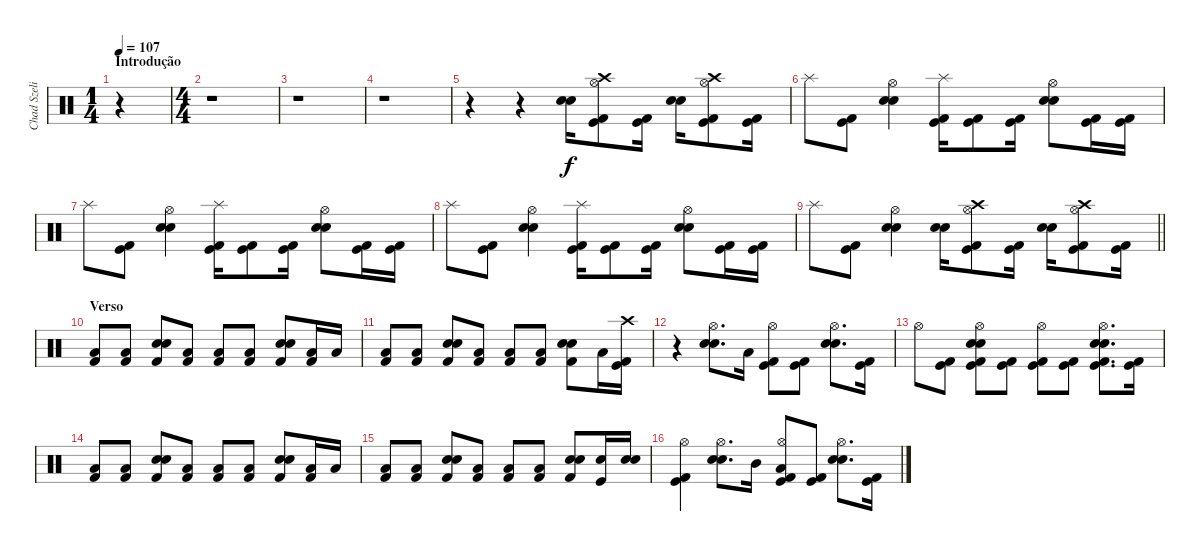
\track ("Chad Szeliga" "Chad Szeli") {instrument percussion}
\staff {score}
\articulation defaults
\ts (1 4)
\section ("" "Introdução")
\tempo 107
\clef neutral
\ks c
r.4{dy f} |
\ts (4 4)
r.1 |
r.1 |
r.1 |
r.4 r.4 ("Snare (hit) 2" "Snare (hit) 2").16 ("Crash high (hit)" "Kick (hit) 2" "Kick (hit)" "Hi-Hat (open)").8 ("Kick (hit) 2" "Kick (hit)").16 ("Snare (hit) 2" "Snare (hit) 2").16 ("Crash high (hit)" "Kick (hit) 2" "Kick (hit)" "Hi-Hat (open)").8 ("Kick (hit) 2" "Kick (hit)").16 |
"Splash (hit)".8 ("Kick (hit) 2" "Kick (hit)").8 ("Snare (hit) 2" "Snare (hit) 2" "Hi-Hat (open)").4 ("Kick (hit) 2" "Kick (hit)" "Splash (hit)").16 ("Kick (hit) 2" "Kick (hit)").8 ("Kick (hit) 2" "Kick (hit)").16 ("Snare (hit) 2" "Snare (hit) 2" "Hi-Hat (open)").8 ("Kick (hit) 2" "Kick (hit)").16 ("Kick (hit) 2" "Kick (hit)").16 |
"Splash (hit)".8 ("Kick (hit) 2" "Kick (hit)").8 ("Snare (hit) 2" "Snare (hit) 2" "Hi-Hat (open)").4 ("Kick (hit) 2" "Kick (hit)" "Splash (hit)").16 ("Kick (hit) 2" "Kick (hit)").8 ("Kick (hit) 2" "Kick (hit)").16 ("Snare (hit) 2" "Snare (hit) 2" "Hi-Hat (open)").8 ("Kick (hit) 2" "Kick (hit)").16 ("Kick (hit) 2" "Kick (hit)").16 |
"Splash (hit)".8 ("Kick (hit) 2" "Kick (hit)").8 ("Snare (hit) 2" "Snare (hit) 2" "Hi-Hat (open)").4 ("Kick (hit) 2" "Kick (hit)" "Splash (hit)").16 ("Kick (hit) 2" "Kick (hit)").8 ("Kick (hit) 2" "Kick (hit)").16 ("Snare (hit) 2" "Snare (hit) 2" "Hi-Hat (open)").8 ("Kick (hit) 2" "Kick (hit)").16 ("Kick (hit) 2" "Kick (hit)").16 |
\barLineRight lightlight "Splash (hit)".8
("Kick (hit) 2" "Kick (hit)").8 ("Snare (hit) 2" "Snare (hit) 2" "Hi-Hat (open)").4 ("Snare (hit) 2" "Snare (hit) 2").16 ("Crash high (hit)" "Kick (hit) 2" "Kick (hit)" "Hi-Hat (open)").8 ("Kick (hit) 2" "Kick (hit)").16 ("Snare (hit) 2" "Snare (hit) 2").16 ("Crash high (hit)" "Kick (hit) 2" "Kick (hit)" "Hi-Hat (open)").8 ("Kick (hit) 2" "Kick (hit)").16 |
\section ("" "Verso")
("Kick (hit) 2" "Low Tom (hit)").8 ("Kick (hit) 2" "Low Tom (hit)").8 ("Kick (hit) 2" "Snare (hit) 2" "Snare (hit) 2").8 ("Kick (hit) 2" "Low Tom (hit)").8 ("Kick (hit) 2" "Low Tom (hit)").8 ("Kick (hit) 2" "Low Tom (hit)").8 ("Kick (hit) 2" "Snare (hit) 2" "Snare (hit) 2").8 ("Kick (hit) 2" "Low Tom (hit)").16 "Low Tom (hit)".16 |
("Kick (hit) 2" "Low Tom (hit)").8 ("Kick (hit) 2" "Low Tom (hit)").8 ("Kick (hit) 2" "Snare (hit) 2" "Snare (hit) 2").8 ("Kick (hit) 2" "Low Tom (hit)").8 ("Kick (hit) 2" "Low Tom (hit)").8 ("Kick (hit) 2" "Low Tom (hit)").8 ("Kick (hit) 2" "Snare (hit) 2" "Snare (hit) 2").8 "Low Tom (hit)".16 ("Crash high (hit)" "Kick (hit) 2" "Kick (hit)").16 |
r.4 ("Snare (hit) 2" "Snare (hit) 2" "Hi-Hat (open)").8{d} "Low Tom (hit)".16 ("Kick (hit) 2" "Kick (hit)" "Hi-Hat (open)").8 ("Kick (hit) 2" "Kick (hit)").8 ("Snare (hit) 2" "Snare (hit) 2" "Hi-Hat (open)").8{d} ("Kick (hit) 2" "Kick (hit)").16 |
"Hi-Hat (open)".8 ("Kick (hit) 2" "Kick (hit)").8 ("Kick (hit) 2" "Kick (hit)" "Snare (hit) 2" "Snare (hit) 2" "Hi-Hat (open)").8 ("Kick (hit) 2" "Kick (hit)").8 ("Kick (hit) 2" "Kick (hit)" "Hi-Hat (open)").8 ("Kick (hit) 2" "Kick (hit)").8 ("Kick (hit) 2" "Kick (hit)" "Snare (hit) 2" "Snare (hit) 2" "Hi-Hat (open)").8{d} ("Kick (hit) 2" "Kick (hit)").16 |
("Kick (hit) 2" "Low Tom (hit)").8 ("Kick (hit) 2" "Low Tom (hit)").8 ("Kick (hit) 2" "Snare (hit) 2" "Snare (hit) 2").8 ("Kick (hit) 2" "Low Tom (hit)").8 ("Kick (hit) 2" "Low Tom (hit)").8 ("Kick (hit) 2" "Low Tom (hit)").8 ("Kick (hit) 2" "Snare (hit) 2" "Snare (hit) 2").8 ("Kick (hit) 2" "Low Tom (hit)").16 "Low Tom (hit)".16 |
("Kick (hit) 2" "Low Tom (hit)").8 ("Kick (hit) 2" "Low Tom (hit)").8 ("Kick (hit) 2" "Snare (hit) 2" "Snare (hit) 2").8 ("Kick (hit) 2" "Low Tom (hit)").8 ("Kick (hit) 2" "Low Tom (hit)").8 ("Kick (hit) 2" "Low Tom (hit)").8 ("Kick (hit) 2" "Snare (hit) 2" "Snare (hit) 2").8 ("Snare (hit) 2" "Kick (hit)").16 ("Snare (hit) 2" "Snare (hit) 2").16 |
("Kick (hit) 2" "Kick (hit)" "Hi-Hat (open)").4 ("Snare (hit) 2" "Snare (hit) 2" "Hi-Hat (open)").8{d} "Mid Tom (hit)".16 ("Kick (hit) 2" "Kick (hit)" "Low Tom (hit)" "Hi-Hat (open)").8 ("Kick (hit) 2" "Kick (hit)").8 ("Snare (hit) 2" "Snare (hit) 2" "Hi-Hat (open)").8{d} ("Kick (hit) 2" "Kick (hit)").16
